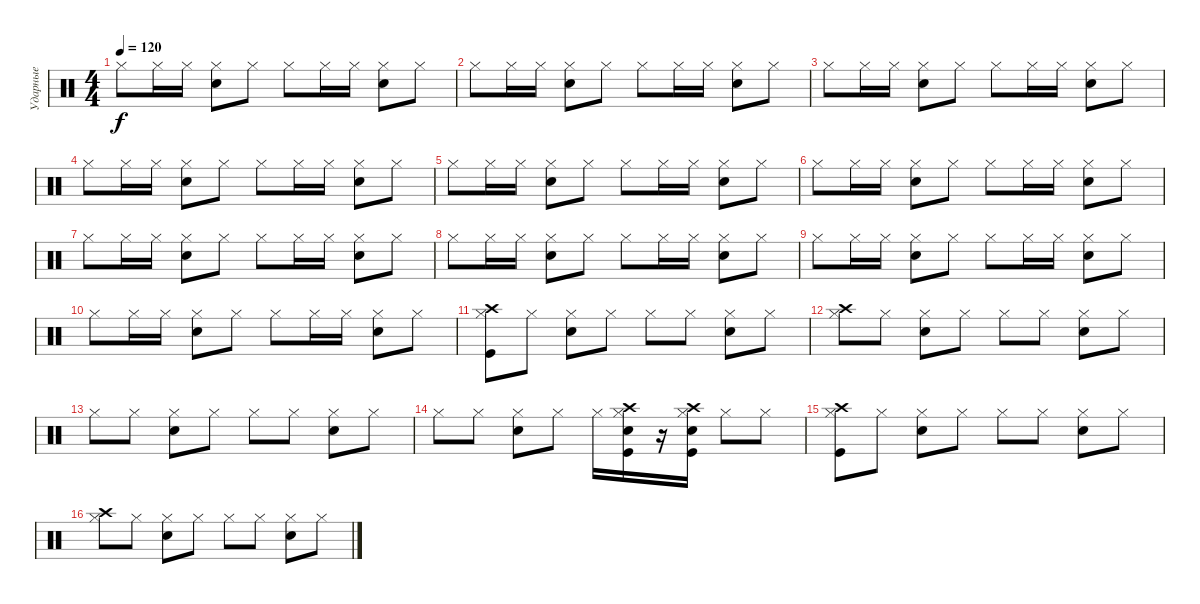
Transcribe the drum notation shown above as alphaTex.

\track ("Ударные" "Ударные") {instrument percussion}
\staff {score}
\articulation defaults
\ts (4 4)
\tempo 120
\clef neutral
\ks c "Hi-Hat (closed)".8{dy f} "Hi-Hat (closed)".16 "Hi-Hat (closed)".16
("Hi-Hat (closed)" "Electric Snare (hit)").8 "Hi-Hat (closed)".8 "Hi-Hat (closed)".8 "Hi-Hat (closed)".16 "Hi-Hat (closed)".16 ("Hi-Hat (closed)" "Electric Snare (hit)").8 "Hi-Hat (closed)".8 |
"Hi-Hat (closed)".8 "Hi-Hat (closed)".16 "Hi-Hat (closed)".16 ("Hi-Hat (closed)" "Electric Snare (hit)").8 "Hi-Hat (closed)".8 "Hi-Hat (closed)".8 "Hi-Hat (closed)".16 "Hi-Hat (closed)".16 ("Hi-Hat (closed)" "Electric Snare (hit)").8 "Hi-Hat (closed)".8 |
"Hi-Hat (closed)".8 "Hi-Hat (closed)".16 "Hi-Hat (closed)".16 ("Hi-Hat (closed)" "Electric Snare (hit)").8 "Hi-Hat (closed)".8 "Hi-Hat (closed)".8 "Hi-Hat (closed)".16 "Hi-Hat (closed)".16 ("Hi-Hat (closed)" "Electric Snare (hit)").8 "Hi-Hat (closed)".8 |
"Hi-Hat (closed)".8 "Hi-Hat (closed)".16 "Hi-Hat (closed)".16 ("Hi-Hat (closed)" "Electric Snare (hit)").8 "Hi-Hat (closed)".8 "Hi-Hat (closed)".8 "Hi-Hat (closed)".16 "Hi-Hat (closed)".16 ("Hi-Hat (closed)" "Electric Snare (hit)").8 "Hi-Hat (closed)".8 |
"Hi-Hat (closed)".8 "Hi-Hat (closed)".16 "Hi-Hat (closed)".16 ("Hi-Hat (closed)" "Electric Snare (hit)").8 "Hi-Hat (closed)".8 "Hi-Hat (closed)".8 "Hi-Hat (closed)".16 "Hi-Hat (closed)".16 ("Hi-Hat (closed)" "Electric Snare (hit)").8 "Hi-Hat (closed)".8 |
"Hi-Hat (closed)".8 "Hi-Hat (closed)".16 "Hi-Hat (closed)".16 ("Hi-Hat (closed)" "Electric Snare (hit)").8 "Hi-Hat (closed)".8 "Hi-Hat (closed)".8 "Hi-Hat (closed)".16 "Hi-Hat (closed)".16 ("Hi-Hat (closed)" "Electric Snare (hit)").8 "Hi-Hat (closed)".8 |
"Hi-Hat (closed)".8 "Hi-Hat (closed)".16 "Hi-Hat (closed)".16 ("Hi-Hat (closed)" "Electric Snare (hit)").8 "Hi-Hat (closed)".8 "Hi-Hat (closed)".8 "Hi-Hat (closed)".16 "Hi-Hat (closed)".16 ("Hi-Hat (closed)" "Electric Snare (hit)").8 "Hi-Hat (closed)".8 |
"Hi-Hat (closed)".8 "Hi-Hat (closed)".16 "Hi-Hat (closed)".16 ("Hi-Hat (closed)" "Electric Snare (hit)").8 "Hi-Hat (closed)".8 "Hi-Hat (closed)".8 "Hi-Hat (closed)".16 "Hi-Hat (closed)".16 ("Hi-Hat (closed)" "Electric Snare (hit)").8 "Hi-Hat (closed)".8 |
"Hi-Hat (closed)".8 "Hi-Hat (closed)".16 "Hi-Hat (closed)".16 ("Hi-Hat (closed)" "Electric Snare (hit)").8 "Hi-Hat (closed)".8 "Hi-Hat (closed)".8 "Hi-Hat (closed)".16 "Hi-Hat (closed)".16 ("Hi-Hat (closed)" "Electric Snare (hit)").8 "Hi-Hat (closed)".8 |
"Hi-Hat (closed)".8 "Hi-Hat (closed)".16 "Hi-Hat (closed)".16 ("Hi-Hat (closed)" "Electric Snare (hit)").8 "Hi-Hat (closed)".8 "Hi-Hat (closed)".8 "Hi-Hat (closed)".16 "Hi-Hat (closed)".16 ("Hi-Hat (closed)" "Electric Snare (hit)").8 "Hi-Hat (closed)".8 |
("Hi-Hat (closed)" "Crash high (hit)" "Kick (hit)").8 "Hi-Hat (closed)".8 ("Hi-Hat (closed)" "Electric Snare (hit)").8 "Hi-Hat (closed)".8 "Hi-Hat (closed)".8 "Hi-Hat (closed)".8 ("Hi-Hat (closed)" "Electric Snare (hit)").8 "Hi-Hat (closed)".8 |
("Hi-Hat (closed)" "Crash high (hit)").8 "Hi-Hat (closed)".8 ("Hi-Hat (closed)" "Electric Snare (hit)").8 "Hi-Hat (closed)".8 "Hi-Hat (closed)".8 "Hi-Hat (closed)".8 ("Hi-Hat (closed)" "Electric Snare (hit)").8 "Hi-Hat (closed)".8 |
"Hi-Hat (closed)".8 "Hi-Hat (closed)".8 ("Hi-Hat (closed)" "Electric Snare (hit)").8 "Hi-Hat (closed)".8 "Hi-Hat (closed)".8 "Hi-Hat (closed)".8 ("Hi-Hat (closed)" "Electric Snare (hit)").8 "Hi-Hat (closed)".8 |
"Hi-Hat (closed)".8 "Hi-Hat (closed)".8 ("Hi-Hat (closed)" "Electric Snare (hit)").8 "Hi-Hat (closed)".8 "Hi-Hat (closed)".16 ("Hi-Hat (closed)" "Electric Snare (hit)" "Crash high (hit)" "Kick (hit)").16 r.16 ("Hi-Hat (closed)" "Electric Snare (hit)" "Crash high (hit)" "Kick (hit)").16 "Hi-Hat (closed)".8 "Hi-Hat (closed)".8 |
("Hi-Hat (closed)" "Crash high (hit)" "Kick (hit)").8 "Hi-Hat (closed)".8 ("Hi-Hat (closed)" "Electric Snare (hit)").8 "Hi-Hat (closed)".8 "Hi-Hat (closed)".8 "Hi-Hat (closed)".8 ("Hi-Hat (closed)" "Electric Snare (hit)").8 "Hi-Hat (closed)".8 |
("Hi-Hat (closed)" "Crash high (hit)").8 "Hi-Hat (closed)".8 ("Hi-Hat (closed)" "Electric Snare (hit)").8 "Hi-Hat (closed)".8 "Hi-Hat (closed)".8 "Hi-Hat (closed)".8 ("Hi-Hat (closed)" "Electric Snare (hit)").8 "Hi-Hat (closed)".8
